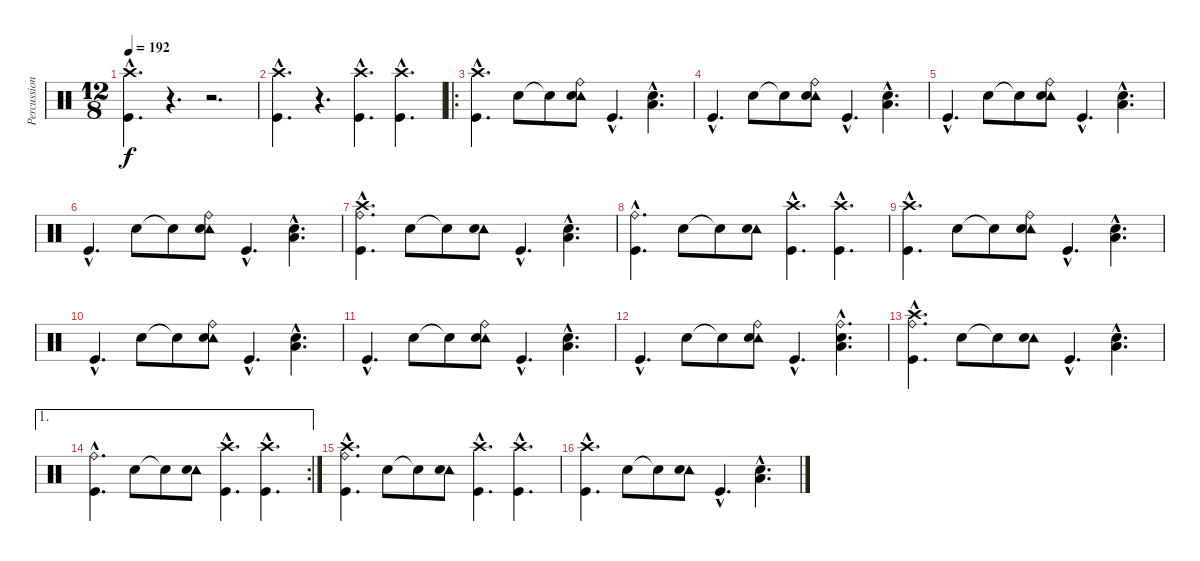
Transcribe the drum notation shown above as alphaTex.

\track ("Percussion" "Percussion") {instrument percussion}
\staff {score}
\articulation defaults
\ts (12 8)
\tempo 192
\clef neutral
\ks c
("Crash high (hit)"{hac} "Kick (hit)"{hac}).4{d dy f} r.4{d} r.2{d} |
("Crash high (hit)"{hac} "Kick (hit)"{hac}).4{d} r.4{d} ("Crash high (hit)"{hac} "Kick (hit)"{hac}).4{d} ("Crash high (hit)"{hac} "Kick (hit)"{hac}).4{d} |
\ro
("Crash high (hit)"{hac} "Kick (hit)"{hac}).4{d} "Snare (hit) 2".8 "Snare (hit)"{t}.8 ("Tambourine (hit)" "Ride (bell)" "Snare (hit) 2").8 "Kick (hit)"{hac}.4{d} ("Snare (hit) 2"{hac} "Low Floor Tom (hit)"{hac}).4{d} |
"Kick (hit)"{hac}.4{d} "Snare (hit) 2".8 "Snare (hit)"{t}.8 ("Tambourine (hit)" "Ride (bell)" "Snare (hit) 2").8 "Kick (hit)"{hac}.4{d} ("Snare (hit) 2"{hac} "Low Floor Tom (hit)"{hac}).4{d} |
"Kick (hit)"{hac}.4{d} "Snare (hit) 2".8 "Snare (hit)"{t}.8 ("Tambourine (hit)" "Ride (bell)" "Snare (hit) 2").8 "Kick (hit)"{hac}.4{d} ("Snare (hit) 2"{hac} "Low Floor Tom (hit)"{hac}).4{d} |
"Kick (hit)"{hac}.4{d} "Snare (hit) 2".8 "Snare (hit)"{t}.8 ("Tambourine (hit)" "Ride (bell)" "Snare (hit) 2").8 "Kick (hit)"{hac}.4{d} ("Snare (hit) 2"{hac} "Low Floor Tom (hit)"{hac}).4{d} |
("Crash high (hit)"{hac} "Ride (bell)"{hac} "Kick (hit)"{hac}).4{d} "Snare (hit) 2".8 "Snare (hit)"{t}.8 ("Tambourine (hit)" "Snare (hit) 2").8 "Kick (hit)"{hac}.4{d} ("Snare (hit) 2"{hac} "Low Floor Tom (hit)"{hac}).4{d} |
("Ride (bell)"{hac} "Kick (hit)"{hac}).4{d} "Snare (hit) 2".8 "Snare (hit)"{t}.8 ("Tambourine (hit)" "Snare (hit) 2").8 ("Crash high (hit)"{hac} "Kick (hit)"{hac}).4{d} ("Crash high (hit)"{hac} "Kick (hit)"{hac}).4{d} |
("Crash high (hit)"{hac} "Kick (hit)"{hac}).4{d} "Snare (hit) 2".8 "Snare (hit)"{t}.8 ("Tambourine (hit)" "Ride (bell)" "Snare (hit) 2").8 "Kick (hit)"{hac}.4{d} ("Snare (hit) 2"{hac} "Low Floor Tom (hit)"{hac}).4{d} |
"Kick (hit)"{hac}.4{d} "Snare (hit) 2".8 "Snare (hit)"{t}.8 ("Tambourine (hit)" "Ride (bell)" "Snare (hit) 2").8 "Kick (hit)"{hac}.4{d} ("Snare (hit) 2"{hac} "Low Floor Tom (hit)"{hac}).4{d} |
"Kick (hit)"{hac}.4{d} "Snare (hit) 2".8 "Snare (hit)"{t}.8 ("Tambourine (hit)" "Ride (bell)" "Snare (hit) 2").8 "Kick (hit)"{hac}.4{d} ("Snare (hit) 2"{hac} "Low Floor Tom (hit)"{hac}).4{d} |
"Kick (hit)"{hac}.4{d} "Snare (hit) 2".8 "Snare (hit)"{t}.8 ("Tambourine (hit)" "Ride (bell)" "Snare (hit) 2").8 "Kick (hit)"{hac}.4{d} ("Ride (bell)"{hac} "Snare (hit) 2"{hac} "Low Floor Tom (hit)"{hac}).4{d} |
("Crash high (hit)"{hac} "Ride (bell)"{hac} "Kick (hit)"{hac}).4{d} "Snare (hit) 2".8 "Snare (hit)"{t}.8 ("Tambourine (hit)" "Snare (hit) 2").8 "Kick (hit)"{hac}.4{d} ("Snare (hit) 2"{hac} "Low Floor Tom (hit)"{hac}).4{d} |
\ae 1
\rc 2
("Ride (bell)"{hac} "Kick (hit)"{hac}).4{d} "Snare (hit) 2".8 "Snare (hit)"{t}.8 ("Tambourine (hit)" "Snare (hit) 2").8 ("Crash high (hit)"{hac} "Kick (hit)"{hac}).4{d} ("Crash high (hit)"{hac} "Kick (hit)"{hac}).4{d} |
("Crash high (hit)"{hac} "Ride (bell)"{hac} "Kick (hit)"{hac}).4{d} "Snare (hit) 2".8 "Snare (hit)"{t}.8 ("Tambourine (hit)" "Snare (hit) 2").8 ("Crash high (hit)"{hac} "Kick (hit)"{hac}).4{d} ("Crash high (hit)"{hac} "Kick (hit)"{hac}).4{d} |
("Crash high (hit)"{hac} "Kick (hit)"{hac}).4{d} "Snare (hit) 2".8 "Snare (hit)"{t}.8 ("Tambourine (hit)" "Snare (hit) 2").8 "Kick (hit)"{hac}.4{d} ("Snare (hit) 2"{hac} "Low Floor Tom (hit)"{hac}).4{d}
